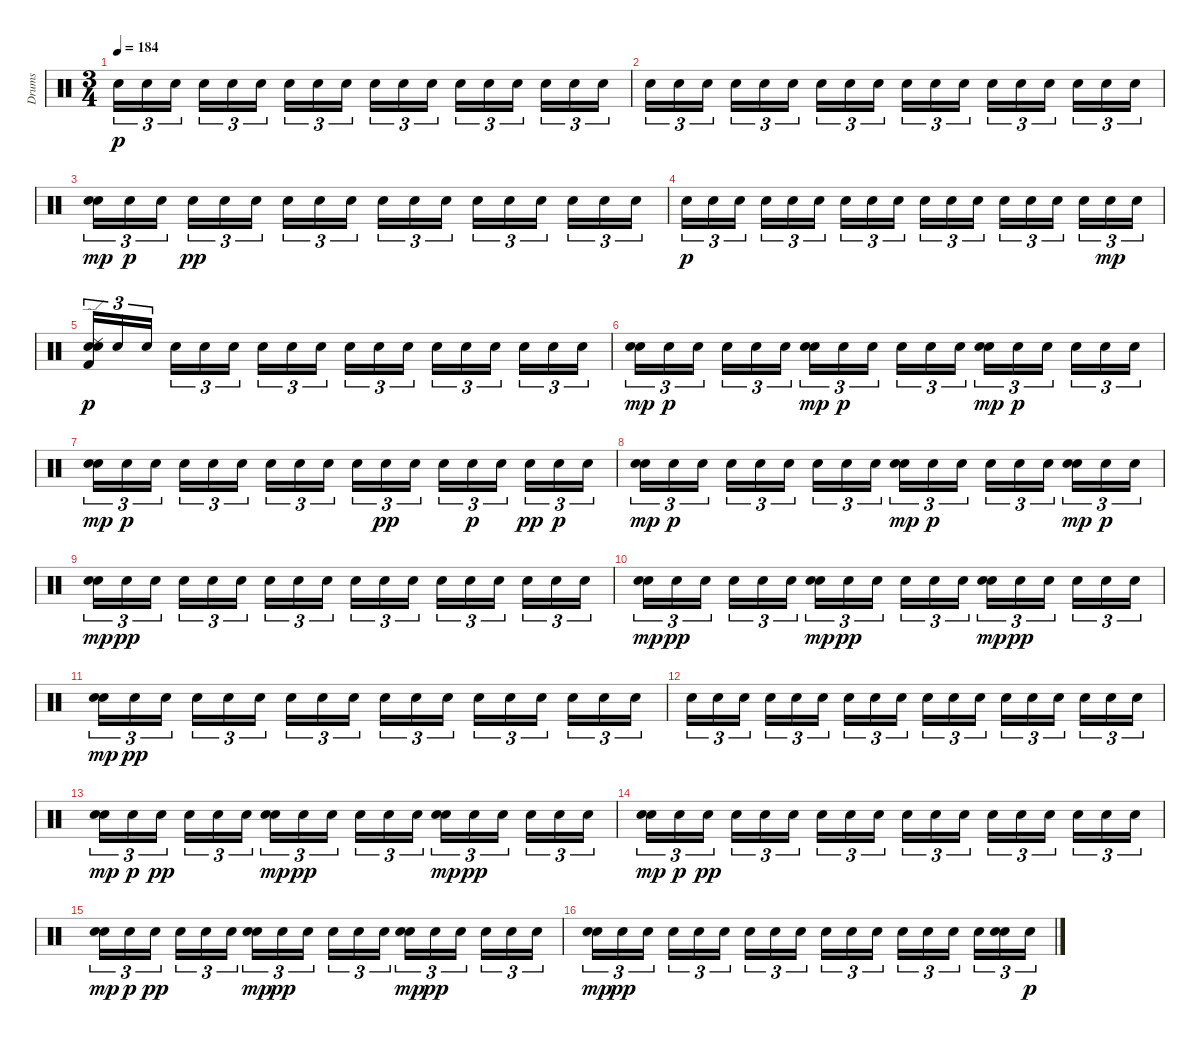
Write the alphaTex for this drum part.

\track ("Drums" "Drums") {instrument percussion}
\staff {score}
\articulation defaults
\ts (3 4)
\tempo 184
\clef neutral
\ks c "Electric Snare (hit)".16{tu (3 2) dy p} "Electric Snare (hit)".16{tu (3 2)} "Electric Snare (hit)".16{tu (3 2)} "Electric Snare (hit)".16{tu (3 2)} "Electric Snare (hit)".16{tu (3 2)} "Electric Snare (hit)".16{tu (3 2)} "Electric Snare (hit)".16{tu (3 2)} "Electric Snare (hit)".16{tu (3 2)} "Electric Snare (hit)".16{tu (3 2)} "Electric Snare (hit)".16{tu (3 2)} "Electric Snare (hit)".16{tu (3 2)} "Electric Snare (hit)".16{tu (3 2)} "Electric Snare (hit)".16{tu (3 2)} "Electric Snare (hit)".16{tu (3 2)} "Electric Snare (hit)".16{tu (3 2)} "Electric Snare (hit)".16{tu (3 2)} "Electric Snare (hit)".16{tu (3 2)} "Electric Snare (hit)".16{tu (3 2)}
|
"Electric Snare (hit)".16{tu (3 2)} "Electric Snare (hit)".16{tu (3 2)} "Electric Snare (hit)".16{tu (3 2)} "Electric Snare (hit)".16{tu (3 2)} "Electric Snare (hit)".16{tu (3 2)} "Electric Snare (hit)".16{tu (3 2)} "Electric Snare (hit)".16{tu (3 2)} "Electric Snare (hit)".16{tu (3 2)} "Electric Snare (hit)".16{tu (3 2)} "Electric Snare (hit)".16{tu (3 2)} "Electric Snare (hit)".16{tu (3 2)} "Electric Snare (hit)".16{tu (3 2)} "Electric Snare (hit)".16{tu (3 2)} "Electric Snare (hit)".16{tu (3 2)} "Electric Snare (hit)".16{tu (3 2)} "Electric Snare (hit)".16{tu (3 2)} "Electric Snare (hit)".16{tu (3 2)} "Electric Snare (hit)".16{tu (3 2)} |
("Electric Snare (hit)" "Electric Snare (hit)").16{tu (3 2) dy mp} "Electric Snare (hit)".16{tu (3 2) dy p} "Electric Snare (hit)".16{tu (3 2)} "Electric Snare (hit)".16{tu (3 2) dy pp} "Electric Snare (hit)".16{tu (3 2)} "Electric Snare (hit)".16{tu (3 2)} "Electric Snare (hit)".16{tu (3 2)} "Electric Snare (hit)".16{tu (3 2)} "Electric Snare (hit)".16{tu (3 2)} "Electric Snare (hit)".16{tu (3 2)} "Electric Snare (hit)".16{tu (3 2)} "Electric Snare (hit)".16{tu (3 2)} "Electric Snare (hit)".16{tu (3 2)} "Electric Snare (hit)".16{tu (3 2)} "Electric Snare (hit)".16{tu (3 2)} "Electric Snare (hit)".16{tu (3 2)} "Electric Snare (hit)".16{tu (3 2)} "Electric Snare (hit)".16{tu (3 2)} |
"Electric Snare (hit)".16{tu (3 2) dy p} "Electric Snare (hit)".16{tu (3 2)} "Electric Snare (hit)".16{tu (3 2)} "Electric Snare (hit)".16{tu (3 2)} "Electric Snare (hit)".16{tu (3 2)} "Electric Snare (hit)".16{tu (3 2)} "Electric Snare (hit)".16{tu (3 2)} "Electric Snare (hit)".16{tu (3 2)} "Electric Snare (hit)".16{tu (3 2)} "Electric Snare (hit)".16{tu (3 2)} "Electric Snare (hit)".16{tu (3 2)} "Electric Snare (hit)".16{tu (3 2)} "Electric Snare (hit)".16{tu (3 2)} "Electric Snare (hit)".16{tu (3 2)} "Electric Snare (hit)".16{tu (3 2)} "Electric Snare (hit)".16{tu (3 2)} "Electric Snare (hit)".16{tu (3 2) dy mp} "Electric Snare (hit)".16{tu (3 2)} |
("Electric Snare (hit)" "Electric Snare (hit)" "Ride (edge) 2" "Kick (hit) 2").16{tu (3 2) dy p} "Electric Snare (hit)".16{tu (3 2)} "Electric Snare (hit)".16{tu (3 2)} "Electric Snare (hit)".16{tu (3 2)} "Electric Snare (hit)".16{tu (3 2)} "Electric Snare (hit)".16{tu (3 2)} "Electric Snare (hit)".16{tu (3 2)} "Electric Snare (hit)".16{tu (3 2)} "Electric Snare (hit)".16{tu (3 2)} "Electric Snare (hit)".16{tu (3 2)} "Electric Snare (hit)".16{tu (3 2)} "Electric Snare (hit)".16{tu (3 2)} "Electric Snare (hit)".16{tu (3 2)} "Electric Snare (hit)".16{tu (3 2)} "Electric Snare (hit)".16{tu (3 2)} "Electric Snare (hit)".16{tu (3 2)} "Electric Snare (hit)".16{tu (3 2)} "Electric Snare (hit)".16{tu (3 2)} |
("Electric Snare (hit)" "Electric Snare (hit)").16{tu (3 2) dy mp} "Electric Snare (hit)".16{tu (3 2) dy p} "Electric Snare (hit)".16{tu (3 2)} "Electric Snare (hit)".16{tu (3 2)} "Electric Snare (hit)".16{tu (3 2)} "Electric Snare (hit)".16{tu (3 2)} ("Electric Snare (hit)" "Electric Snare (hit)").16{tu (3 2) dy mp} "Electric Snare (hit)".16{tu (3 2) dy p} "Electric Snare (hit)".16{tu (3 2)} "Electric Snare (hit)".16{tu (3 2)} "Electric Snare (hit)".16{tu (3 2)} "Electric Snare (hit)".16{tu (3 2)} ("Electric Snare (hit)" "Electric Snare (hit)").16{tu (3 2) dy mp} "Electric Snare (hit)".16{tu (3 2) dy p} "Electric Snare (hit)".16{tu (3 2)} "Electric Snare (hit)".16{tu (3 2)} "Electric Snare (hit)".16{tu (3 2)} "Electric Snare (hit)".16{tu (3 2)} |
("Electric Snare (hit)" "Electric Snare (hit)").16{tu (3 2) dy mp} "Electric Snare (hit)".16{tu (3 2) dy p} "Electric Snare (hit)".16{tu (3 2)} "Electric Snare (hit)".16{tu (3 2)} "Electric Snare (hit)".16{tu (3 2)} "Electric Snare (hit)".16{tu (3 2)} "Electric Snare (hit)".16{tu (3 2)} "Electric Snare (hit)".16{tu (3 2)} "Electric Snare (hit)".16{tu (3 2)} "Electric Snare (hit)".16{tu (3 2)} "Electric Snare (hit)".16{tu (3 2) dy pp} "Electric Snare (hit)".16{tu (3 2)} "Electric Snare (hit)".16{tu (3 2)} "Electric Snare (hit)".16{tu (3 2) dy p} "Electric Snare (hit)".16{tu (3 2)} "Electric Snare (hit)".16{tu (3 2) dy pp} "Electric Snare (hit)".16{tu (3 2) dy p} "Electric Snare (hit)".16{tu (3 2)} |
("Electric Snare (hit)" "Electric Snare (hit)").16{tu (3 2) dy mp} "Electric Snare (hit)".16{tu (3 2) dy p} "Electric Snare (hit)".16{tu (3 2)} "Electric Snare (hit)".16{tu (3 2)} "Electric Snare (hit)".16{tu (3 2)} "Electric Snare (hit)".16{tu (3 2)} "Electric Snare (hit)".16{tu (3 2)} "Electric Snare (hit)".16{tu (3 2)} "Electric Snare (hit)".16{tu (3 2)} ("Electric Snare (hit)" "Electric Snare (hit)").16{tu (3 2) dy mp} "Electric Snare (hit)".16{tu (3 2) dy p} "Electric Snare (hit)".16{tu (3 2)} "Electric Snare (hit)".16{tu (3 2)} "Electric Snare (hit)".16{tu (3 2)} "Electric Snare (hit)".16{tu (3 2)} ("Electric Snare (hit)" "Electric Snare (hit)").16{tu (3 2) dy mp} "Electric Snare (hit)".16{tu (3 2) dy p} "Electric Snare (hit)".16{tu (3 2)} |
("Electric Snare (hit)" "Electric Snare (hit)").16{tu (3 2) dy mp} "Electric Snare (hit)".16{tu (3 2) dy pp} "Electric Snare (hit)".16{tu (3 2)} "Electric Snare (hit)".16{tu (3 2)} "Electric Snare (hit)".16{tu (3 2)} "Electric Snare (hit)".16{tu (3 2)} "Electric Snare (hit)".16{tu (3 2)} "Electric Snare (hit)".16{tu (3 2)} "Electric Snare (hit)".16{tu (3 2)} "Electric Snare (hit)".16{tu (3 2)} "Electric Snare (hit)".16{tu (3 2)} "Electric Snare (hit)".16{tu (3 2)} "Electric Snare (hit)".16{tu (3 2)} "Electric Snare (hit)".16{tu (3 2)} "Electric Snare (hit)".16{tu (3 2)} "Electric Snare (hit)".16{tu (3 2)} "Electric Snare (hit)".16{tu (3 2)} "Electric Snare (hit)".16{tu (3 2)} |
("Electric Snare (hit)" "Electric Snare (hit)").16{tu (3 2) dy mp} "Electric Snare (hit)".16{tu (3 2) dy pp} "Electric Snare (hit)".16{tu (3 2)} "Electric Snare (hit)".16{tu (3 2)} "Electric Snare (hit)".16{tu (3 2)} "Electric Snare (hit)".16{tu (3 2)} ("Electric Snare (hit)" "Electric Snare (hit)").16{tu (3 2) dy mp} "Electric Snare (hit)".16{tu (3 2) dy pp} "Electric Snare (hit)".16{tu (3 2)} "Electric Snare (hit)".16{tu (3 2)} "Electric Snare (hit)".16{tu (3 2)} "Electric Snare (hit)".16{tu (3 2)} ("Electric Snare (hit)" "Electric Snare (hit)").16{tu (3 2) dy mp} "Electric Snare (hit)".16{tu (3 2) dy pp} "Electric Snare (hit)".16{tu (3 2)} "Electric Snare (hit)".16{tu (3 2)} "Electric Snare (hit)".16{tu (3 2)} "Electric Snare (hit)".16{tu (3 2)} |
("Electric Snare (hit)" "Electric Snare (hit)").16{tu (3 2) dy mp} "Electric Snare (hit)".16{tu (3 2) dy pp} "Electric Snare (hit)".16{tu (3 2)} "Electric Snare (hit)".16{tu (3 2)} "Electric Snare (hit)".16{tu (3 2)} "Electric Snare (hit)".16{tu (3 2)} "Electric Snare (hit)".16{tu (3 2)} "Electric Snare (hit)".16{tu (3 2)} "Electric Snare (hit)".16{tu (3 2)} "Electric Snare (hit)".16{tu (3 2)} "Electric Snare (hit)".16{tu (3 2)} "Electric Snare (hit)".16{tu (3 2)} "Electric Snare (hit)".16{tu (3 2)} "Electric Snare (hit)".16{tu (3 2)} "Electric Snare (hit)".16{tu (3 2)} "Electric Snare (hit)".16{tu (3 2)} "Electric Snare (hit)".16{tu (3 2)} "Electric Snare (hit)".16{tu (3 2)} |
"Electric Snare (hit)".16{tu (3 2)} "Electric Snare (hit)".16{tu (3 2)} "Electric Snare (hit)".16{tu (3 2)} "Electric Snare (hit)".16{tu (3 2)} "Electric Snare (hit)".16{tu (3 2)} "Electric Snare (hit)".16{tu (3 2)} "Electric Snare (hit)".16{tu (3 2)} "Electric Snare (hit)".16{tu (3 2)} "Electric Snare (hit)".16{tu (3 2)} "Electric Snare (hit)".16{tu (3 2)} "Electric Snare (hit)".16{tu (3 2)} "Electric Snare (hit)".16{tu (3 2)} "Electric Snare (hit)".16{tu (3 2)} "Electric Snare (hit)".16{tu (3 2)} "Electric Snare (hit)".16{tu (3 2)} "Electric Snare (hit)".16{tu (3 2)} "Electric Snare (hit)".16{tu (3 2)} "Electric Snare (hit)".16{tu (3 2)} |
("Electric Snare (hit)" "Electric Snare (hit)").16{tu (3 2) dy mp} "Electric Snare (hit)".16{tu (3 2) dy p} "Electric Snare (hit)".16{tu (3 2) dy pp} "Electric Snare (hit)".16{tu (3 2)} "Electric Snare (hit)".16{tu (3 2)} "Electric Snare (hit)".16{tu (3 2)} ("Electric Snare (hit)" "Electric Snare (hit)").16{tu (3 2) dy mp} "Electric Snare (hit)".16{tu (3 2) dy pp} "Electric Snare (hit)".16{tu (3 2)} "Electric Snare (hit)".16{tu (3 2)} "Electric Snare (hit)".16{tu (3 2)} "Electric Snare (hit)".16{tu (3 2)} ("Electric Snare (hit)" "Electric Snare (hit)").16{tu (3 2) dy mp} "Electric Snare (hit)".16{tu (3 2) dy pp} "Electric Snare (hit)".16{tu (3 2)} "Electric Snare (hit)".16{tu (3 2)} "Electric Snare (hit)".16{tu (3 2)} "Electric Snare (hit)".16{tu (3 2)} |
("Electric Snare (hit)" "Electric Snare (hit)").16{tu (3 2) dy mp} "Electric Snare (hit)".16{tu (3 2) dy p} "Electric Snare (hit)".16{tu (3 2) dy pp} "Electric Snare (hit)".16{tu (3 2)} "Electric Snare (hit)".16{tu (3 2)} "Electric Snare (hit)".16{tu (3 2)} "Electric Snare (hit)".16{tu (3 2)} "Electric Snare (hit)".16{tu (3 2)} "Electric Snare (hit)".16{tu (3 2)} "Electric Snare (hit)".16{tu (3 2)} "Electric Snare (hit)".16{tu (3 2)} "Electric Snare (hit)".16{tu (3 2)} "Electric Snare (hit)".16{tu (3 2)} "Electric Snare (hit)".16{tu (3 2)} "Electric Snare (hit)".16{tu (3 2)} "Electric Snare (hit)".16{tu (3 2)} "Electric Snare (hit)".16{tu (3 2)} "Electric Snare (hit)".16{tu (3 2)} |
("Electric Snare (hit)" "Electric Snare (hit)").16{tu (3 2) dy mp} "Electric Snare (hit)".16{tu (3 2) dy p} "Electric Snare (hit)".16{tu (3 2) dy pp} "Electric Snare (hit)".16{tu (3 2)} "Electric Snare (hit)".16{tu (3 2)} "Electric Snare (hit)".16{tu (3 2)} ("Electric Snare (hit)" "Electric Snare (hit)").16{tu (3 2) dy mp} "Electric Snare (hit)".16{tu (3 2) dy pp} "Electric Snare (hit)".16{tu (3 2)} "Electric Snare (hit)".16{tu (3 2)} "Electric Snare (hit)".16{tu (3 2)} "Electric Snare (hit)".16{tu (3 2)} ("Electric Snare (hit)" "Electric Snare (hit)").16{tu (3 2) dy mp} "Electric Snare (hit)".16{tu (3 2) dy pp} "Electric Snare (hit)".16{tu (3 2)} "Electric Snare (hit)".16{tu (3 2)} "Electric Snare (hit)".16{tu (3 2)} "Electric Snare (hit)".16{tu (3 2)} |
("Electric Snare (hit)" "Electric Snare (hit)").16{tu (3 2) dy mp} "Electric Snare (hit)".16{tu (3 2) dy pp} "Electric Snare (hit)".16{tu (3 2)} "Electric Snare (hit)".16{tu (3 2)} "Electric Snare (hit)".16{tu (3 2)} "Electric Snare (hit)".16{tu (3 2)} "Electric Snare (hit)".16{tu (3 2)} "Electric Snare (hit)".16{tu (3 2)} "Electric Snare (hit)".16{tu (3 2)} "Electric Snare (hit)".16{tu (3 2)} "Electric Snare (hit)".16{tu (3 2)} "Electric Snare (hit)".16{tu (3 2)} "Electric Snare (hit)".16{tu (3 2)} "Electric Snare (hit)".16{tu (3 2)} "Electric Snare (hit)".16{tu (3 2)} "Electric Snare (hit)".16{tu (3 2)} ("Electric Snare (hit)" "Electric Snare (hit)").16{tu (3 2)} "Electric Snare (hit)".16{tu (3 2) dy p}
